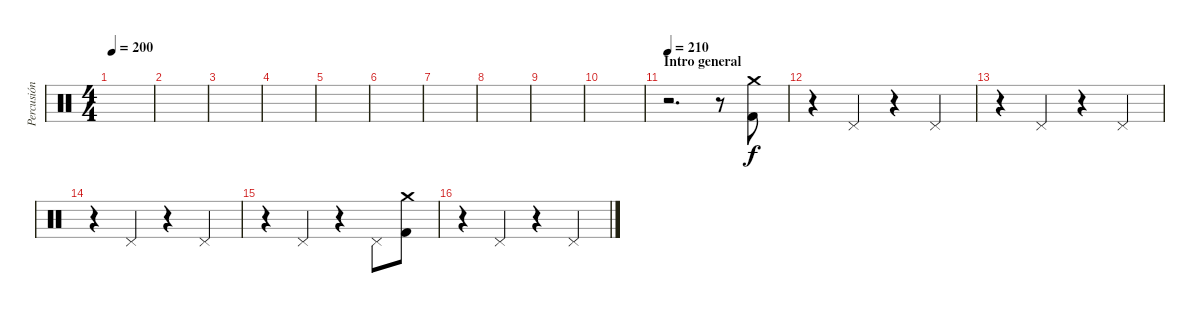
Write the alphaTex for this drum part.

\track ("Percusión" "Percusión") {instrument percussion}
\staff {score}
\articulation defaults
\ts (4 4)
\tempo 200
\clef neutral
\ks c
|
|
|
|
|
|
|
|
|
|
\section ("" "Intro general")
\tempo 210
r.2{d} r.8 ("Crash medium (hit)" "Kick (hit) 2").8 |
r.4 "Pedal Hi-Hat (hit)".4 r.4 "Pedal Hi-Hat (hit)".4 |
r.4 "Pedal Hi-Hat (hit)".4 r.4 "Pedal Hi-Hat (hit)".4 |
r.4 "Pedal Hi-Hat (hit)".4 r.4 "Pedal Hi-Hat (hit)".4 |
r.4 "Pedal Hi-Hat (hit)".4 r.4 "Pedal Hi-Hat (hit)".8 ("Kick (hit) 2" "Crash medium (hit)").8 |
r.4 "Pedal Hi-Hat (hit)".4 r.4 "Pedal Hi-Hat (hit)".4
